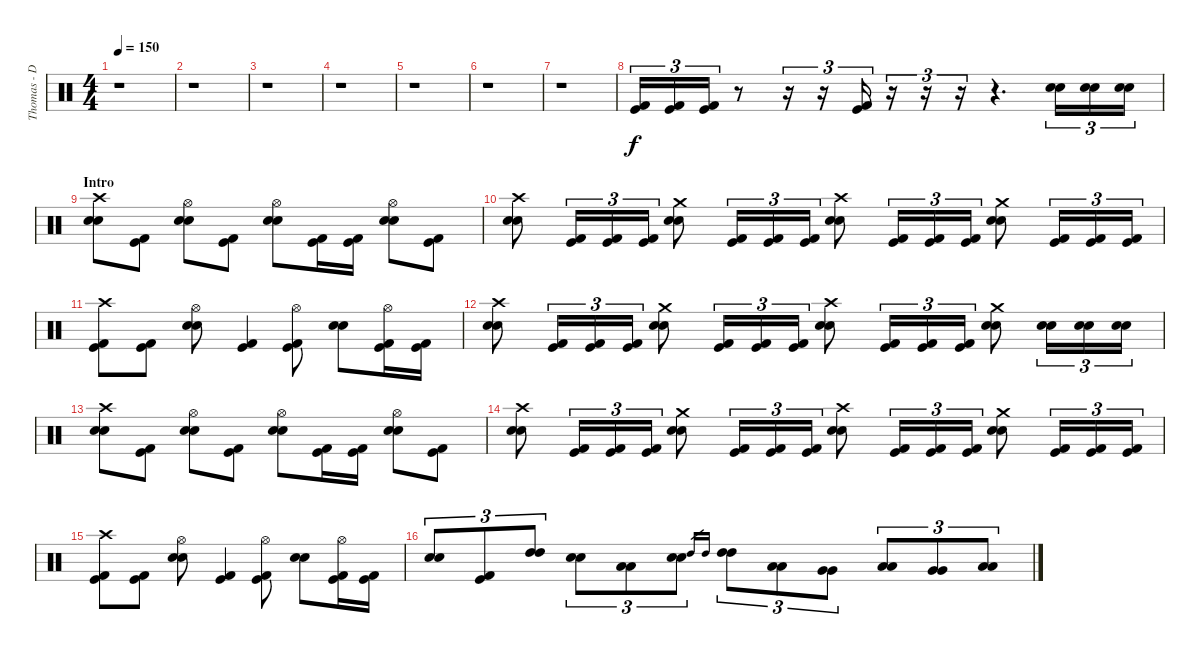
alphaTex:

\track ("Thomas - Dr00mz" "Thomas - D") {instrument percussion}
\staff {score}
\articulation defaults
\ts (4 4)
\tempo 150
\clef neutral
\ks c
r.1{dy f} |
r.1 |
r.1 |
r.1 |
r.1 |
r.1 |
r.1 |
("Kick (hit)" "Kick (hit) 2").16{tu (3 2)} ("Kick (hit)" "Kick (hit) 2").16{tu (3 2)} ("Kick (hit)" "Kick (hit) 2").16{tu (3 2)} r.8 r.16{tu (3 2)} r.16{tu (3 2)} ("Kick (hit)" "Kick (hit) 2").16{tu (3 2)} r.16{tu (3 2)} r.16{tu (3 2)} r.16{tu (3 2)} r.4{d} ("Electric Snare (hit)" "Electric Snare (hit)").16{tu (3 2)} ("Electric Snare (hit)" "Electric Snare (hit)").16{tu (3 2)} ("Electric Snare (hit)" "Electric Snare (hit)").16{tu (3 2)} |
\section ("" "Intro")
("Crash high (hit)" "Electric Snare (hit)" "Electric Snare (hit)").8 ("Kick (hit) 2" "Kick (hit)").8 ("Hi-Hat (open)" "Electric Snare (hit)" "Electric Snare (hit)").8 ("Kick (hit) 2" "Kick (hit)").8 ("Hi-Hat (open)" "Electric Snare (hit)" "Electric Snare (hit)").8 ("Kick (hit) 2" "Kick (hit)").16 ("Kick (hit) 2" "Kick (hit)").16 ("Hi-Hat (open)" "Electric Snare (hit)" "Electric Snare (hit)").8 ("Kick (hit) 2" "Kick (hit)").8 |
("Crash high (hit)" "Electric Snare (hit)" "Electric Snare (hit)").8 ("Kick (hit)" "Kick (hit) 2").16{tu (3 2)} ("Kick (hit)" "Kick (hit) 2").16{tu (3 2)} ("Kick (hit)" "Kick (hit) 2").16{tu (3 2)} ("Crash medium (hit)" "Electric Snare (hit)" "Electric Snare (hit)").8 ("Kick (hit)" "Kick (hit) 2").16{tu (3 2)} ("Kick (hit)" "Kick (hit) 2").16{tu (3 2)} ("Kick (hit)" "Kick (hit) 2").16{tu (3 2)} ("Crash high (hit)" "Electric Snare (hit)" "Electric Snare (hit)").8 ("Kick (hit)" "Kick (hit) 2").16{tu (3 2)} ("Kick (hit)" "Kick (hit) 2").16{tu (3 2)} ("Kick (hit)" "Kick (hit) 2").16{tu (3 2)} ("Crash medium (hit)" "Electric Snare (hit)" "Electric Snare (hit)").8 ("Kick (hit)" "Kick (hit) 2").16{tu (3 2)} ("Kick (hit)" "Kick (hit) 2").16{tu (3 2)} ("Kick (hit)" "Kick (hit) 2").16{tu (3 2)} |
("Crash high (hit)" "Kick (hit)" "Kick (hit) 2").8 ("Kick (hit)" "Kick (hit) 2").8 ("Hi-Hat (open)" "Electric Snare (hit)" "Electric Snare (hit)").8 ("Kick (hit)" "Kick (hit) 2").4 ("Hi-Hat (open)" "Kick (hit)" "Kick (hit) 2").8 ("Electric Snare (hit)" "Electric Snare (hit)").8 ("Hi-Hat (open)" "Kick (hit)" "Kick (hit) 2").16 ("Kick (hit)" "Kick (hit) 2").16 |
("Crash high (hit)" "Electric Snare (hit)" "Electric Snare (hit)").8 ("Kick (hit)" "Kick (hit) 2").16{tu (3 2)} ("Kick (hit)" "Kick (hit) 2").16{tu (3 2)} ("Kick (hit)" "Kick (hit) 2").16{tu (3 2)} ("Crash medium (hit)" "Electric Snare (hit)" "Electric Snare (hit)").8 ("Kick (hit)" "Kick (hit) 2").16{tu (3 2)} ("Kick (hit)" "Kick (hit) 2").16{tu (3 2)} ("Kick (hit)" "Kick (hit) 2").16{tu (3 2)} ("Crash high (hit)" "Electric Snare (hit)" "Electric Snare (hit)").8 ("Kick (hit)" "Kick (hit) 2").16{tu (3 2)} ("Kick (hit)" "Kick (hit) 2").16{tu (3 2)} ("Kick (hit)" "Kick (hit) 2").16{tu (3 2)} ("Crash medium (hit)" "Electric Snare (hit)" "Electric Snare (hit)").8 ("Electric Snare (hit)" "Electric Snare (hit)").16{tu (3 2)} ("Electric Snare (hit)" "Electric Snare (hit)").16{tu (3 2)} ("Electric Snare (hit)" "Electric Snare (hit)").16{tu (3 2)} |
("Crash high (hit)" "Electric Snare (hit)" "Electric Snare (hit)").8 ("Kick (hit) 2" "Kick (hit)").8 ("Hi-Hat (open)" "Electric Snare (hit)" "Electric Snare (hit)").8 ("Kick (hit) 2" "Kick (hit)").8 ("Hi-Hat (open)" "Electric Snare (hit)" "Electric Snare (hit)").8 ("Kick (hit) 2" "Kick (hit)").16 ("Kick (hit) 2" "Kick (hit)").16 ("Hi-Hat (open)" "Electric Snare (hit)" "Electric Snare (hit)").8 ("Kick (hit) 2" "Kick (hit)").8 |
("Crash high (hit)" "Electric Snare (hit)" "Electric Snare (hit)").8 ("Kick (hit)" "Kick (hit) 2").16{tu (3 2)} ("Kick (hit)" "Kick (hit) 2").16{tu (3 2)} ("Kick (hit)" "Kick (hit) 2").16{tu (3 2)} ("Crash medium (hit)" "Electric Snare (hit)" "Electric Snare (hit)").8 ("Kick (hit)" "Kick (hit) 2").16{tu (3 2)} ("Kick (hit)" "Kick (hit) 2").16{tu (3 2)} ("Kick (hit)" "Kick (hit) 2").16{tu (3 2)} ("Crash high (hit)" "Electric Snare (hit)" "Electric Snare (hit)").8 ("Kick (hit)" "Kick (hit) 2").16{tu (3 2)} ("Kick (hit)" "Kick (hit) 2").16{tu (3 2)} ("Kick (hit)" "Kick (hit) 2").16{tu (3 2)} ("Crash medium (hit)" "Electric Snare (hit)" "Electric Snare (hit)").8 ("Kick (hit)" "Kick (hit) 2").16{tu (3 2)} ("Kick (hit)" "Kick (hit) 2").16{tu (3 2)} ("Kick (hit)" "Kick (hit) 2").16{tu (3 2)} |
("Crash high (hit)" "Kick (hit)" "Kick (hit) 2").8 ("Kick (hit)" "Kick (hit) 2").8 ("Hi-Hat (open)" "Electric Snare (hit)" "Electric Snare (hit)").8 ("Kick (hit)" "Kick (hit) 2").4 ("Hi-Hat (open)" "Kick (hit)" "Kick (hit) 2").8 ("Electric Snare (hit)" "Electric Snare (hit)").8 ("Hi-Hat (open)" "Kick (hit)" "Kick (hit) 2").16 ("Kick (hit)" "Kick (hit) 2").16 |
("Electric Snare (hit)" "Electric Snare (hit)").8{tu (3 2)} ("Kick (hit)" "Kick (hit) 2").8{tu (3 2)} ("High Tom (hit)" "High Tom (hit)").8{tu (3 2)} ("Electric Snare (hit)" "Electric Snare (hit)").8{tu (3 2)} ("Low Tom (hit)" "Low Tom (hit)").8{tu (3 2)} ("Electric Snare (hit)" "Electric Snare (hit)").8{tu (3 2)} "High Tom (hit)".16{gr} "High Tom (hit)".16{gr} ("High Tom (hit)" "High Tom (hit)").8{tu (3 2)} ("Low Tom (hit)" "Low Tom (hit)").8{tu (3 2)} ("Very Low Tom (hit)" "Very Low Tom (hit)").8{tu (3 2)} ("Low Tom (hit)" "Low Tom (hit)").8{tu (3 2)} ("Very Low Tom (hit)" "Very Low Tom (hit)").8{tu (3 2)} ("Low Floor Tom (hit)" "Low Floor Tom (hit)").8{tu (3 2)}
